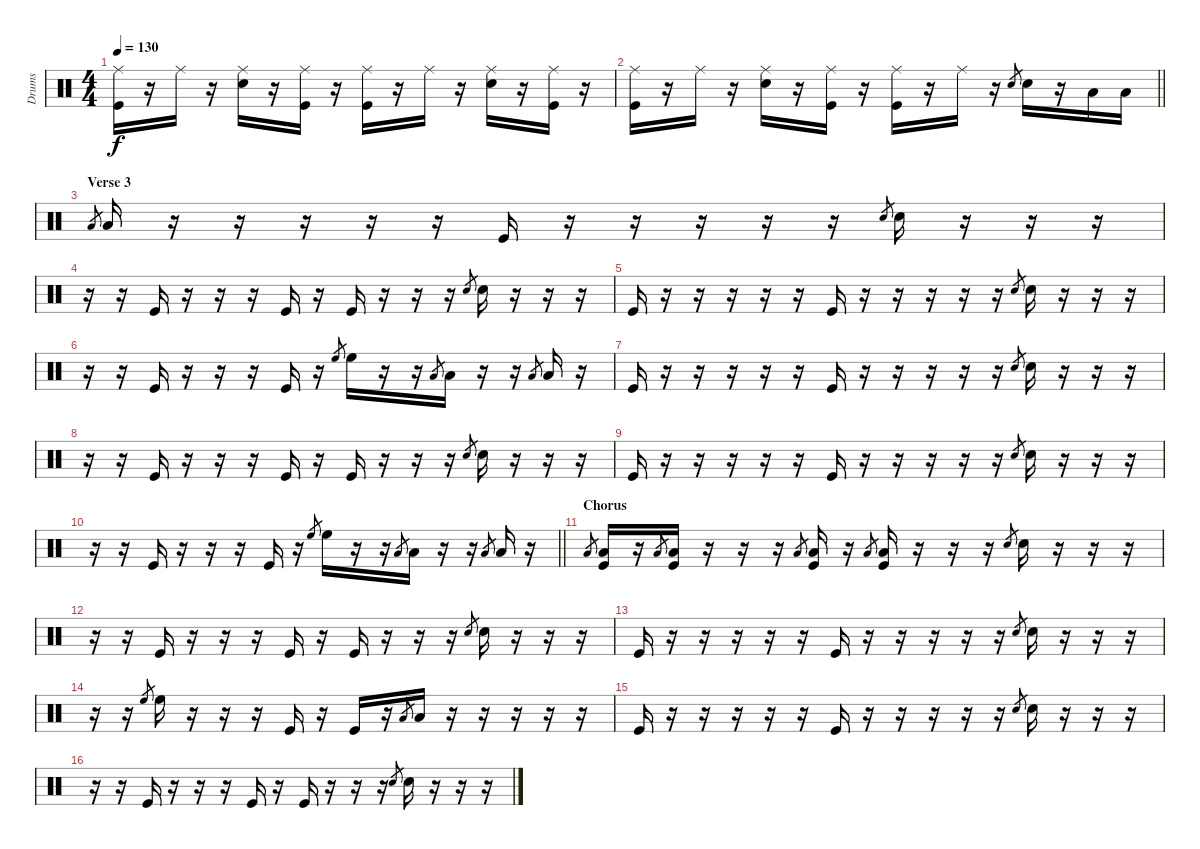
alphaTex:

\track ("Drums" "Drums") {instrument percussion}
\staff {score}
\articulation defaults
\ts (4 4)
\tempo 130
\clef neutral
\ks c
("Kick (hit)" "Ride (middle)").16{dy f} r.16 "Ride (middle)".16 r.16 ("Snare (hit) 2" "Ride (middle)").16 r.16 ("Kick (hit)" "Ride (middle)").16 r.16 ("Kick (hit)" "Ride (middle)").16 r.16 "Ride (middle)".16 r.16 ("Snare (hit) 2" "Ride (middle)").16 r.16 ("Kick (hit)" "Ride (middle)").16 r.16 |
\barLineRight lightlight
("Kick (hit)" "Ride (middle)").16 r.16 "Ride (middle)".16 r.16 ("Snare (hit) 2" "Ride (middle)").16 r.16 ("Kick (hit)" "Ride (middle)").16 r.16 ("Kick (hit)" "Ride (middle)").16 r.16 "Ride (middle)".16 r.16 "Snare (hit) 2".8{gr} "Snare (hit) 2".16 r.16 "Low Floor Tom (hit)".16 "Low Floor Tom (hit)".16 |
\section ("" "Verse 3")
"Low Floor Tom (hit)".8{gr} "Low Floor Tom (hit)".16 r.16 r.16 r.16 r.16 r.16 "Kick (hit)".16 r.16 r.16 r.16 r.16 r.16 "Snare (hit) 2".8{gr} "Snare (hit) 2".16 r.16 r.16 r.16 |
r.16 r.16 "Kick (hit)".16 r.16 r.16 r.16 "Kick (hit)".16 r.16 "Kick (hit)".16 r.16 r.16 r.16 "Snare (hit) 2".8{gr} "Snare (hit) 2".16 r.16 r.16 r.16 |
"Kick (hit)".16 r.16 r.16 r.16 r.16 r.16 "Kick (hit)".16 r.16 r.16 r.16 r.16 r.16 "Snare (hit) 2".8{gr} "Snare (hit) 2".16 r.16 r.16 r.16 |
r.16 r.16 "Kick (hit)".16 r.16 r.16 r.16 "Kick (hit)".16 r.16 "High Floor Tom (hit)".8{gr} "High Floor Tom (hit)".16 r.16 r.16 "Low Tom (hit)".8{gr} "Low Tom (hit)".16 r.16 r.16 "Low Floor Tom (hit)".8{gr} "Low Floor Tom (hit)".16 r.16 |
"Kick (hit)".16 r.16 r.16 r.16 r.16 r.16 "Kick (hit)".16 r.16 r.16 r.16 r.16 r.16 "Snare (hit) 2".8{gr} "Snare (hit) 2".16 r.16 r.16 r.16 |
r.16 r.16 "Kick (hit)".16 r.16 r.16 r.16 "Kick (hit)".16 r.16 "Kick (hit)".16 r.16 r.16 r.16 "Snare (hit) 2".8{gr} "Snare (hit) 2".16 r.16 r.16 r.16 |
"Kick (hit)".16 r.16 r.16 r.16 r.16 r.16 "Kick (hit)".16 r.16 r.16 r.16 r.16 r.16 "Snare (hit) 2".8{gr} "Snare (hit) 2".16 r.16 r.16 r.16 |
\barLineRight lightlight
r.16 r.16 "Kick (hit)".16 r.16 r.16 r.16 "Kick (hit)".16 r.16 "High Floor Tom (hit)".8{gr} "High Floor Tom (hit)".16 r.16 r.16 "Low Tom (hit)".8{gr} "Low Tom (hit)".16 r.16 r.16 "Low Floor Tom (hit)".8{gr} "Low Floor Tom (hit)".16 r.16 |
\section ("" "Chorus")
"Low Floor Tom (hit)".8{gr} ("Kick (hit)" "Low Floor Tom (hit)").16 r.16 "Low Floor Tom (hit)".8{gr} ("Kick (hit)" "Low Floor Tom (hit)").16 r.16 r.16 r.16 "Low Floor Tom (hit)".8{gr} ("Kick (hit)" "Low Floor Tom (hit)").16 r.16 "Low Floor Tom (hit)".8{gr} ("Kick (hit)" "Low Floor Tom (hit)").16 r.16 r.16 r.16 "Snare (hit) 2".8{gr} "Snare (hit) 2".16 r.16 r.16 r.16 |
r.16 r.16 "Kick (hit)".16 r.16 r.16 r.16 "Kick (hit)".16 r.16 "Kick (hit)".16 r.16 r.16 r.16 "Snare (hit) 2".8{gr} "Snare (hit) 2".16 r.16 r.16 r.16 |
"Kick (hit)".16 r.16 r.16 r.16 r.16 r.16 "Kick (hit)".16 r.16 r.16 r.16 r.16 r.16 "Snare (hit) 2".8{gr} "Snare (hit) 2".16 r.16 r.16 r.16 |
r.16 r.16 "High Floor Tom (hit)".8{gr} "High Floor Tom (hit)".16 r.16 r.16 r.16 "Kick (hit)".16 r.16 "Kick (hit)".16 r.16 "Low Tom (hit)".8{gr} "Low Tom (hit)".16 r.16 r.16 r.16 r.16 r.16 |
"Kick (hit)".16 r.16 r.16 r.16 r.16 r.16 "Kick (hit)".16 r.16 r.16 r.16 r.16 r.16 "Snare (hit) 2".8{gr} "Snare (hit) 2".16 r.16 r.16 r.16 |
r.16 r.16 "Kick (hit)".16 r.16 r.16 r.16 "Kick (hit)".16 r.16 "Kick (hit)".16 r.16 r.16 r.16 "Snare (hit) 2".8{gr} "Snare (hit) 2".16 r.16 r.16 r.16
